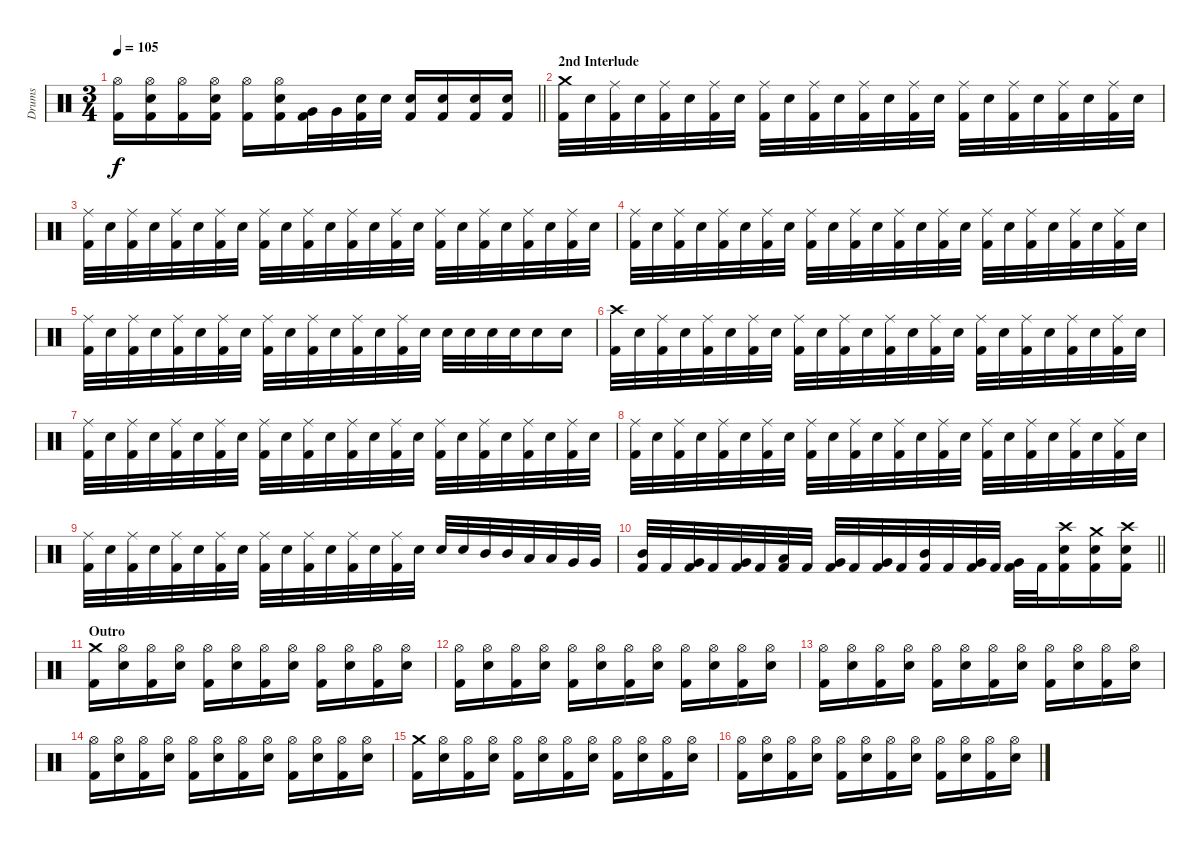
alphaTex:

\track ("Drums" "Drums") {instrument percussion}
\staff {score}
\articulation defaults
\ts (3 4)
\tempo 105
\clef neutral
\barLineRight lightlight
\ks c
("Kick (hit) 2" "Hi-Hat (open)").16{dy f} ("Kick (hit) 2" "Electric Snare (hit)" "Hi-Hat (open)").16 ("Kick (hit) 2" "Hi-Hat (open)").16 ("Kick (hit) 2" "Electric Snare (hit)" "Hi-Hat (open)").16 ("Kick (hit) 2" "Hi-Hat (open)").16 ("Kick (hit) 2" "Electric Snare (hit)" "Hi-Hat (open)").16 ("Kick (hit) 2" "Very Low Tom (hit)").32 "Very Low Tom (hit)".32 ("Kick (hit) 2" "Electric Snare (hit)").32 "Electric Snare (hit)".32 ("Kick (hit) 2" "Electric Snare (hit)").16 ("Kick (hit) 2" "Electric Snare (hit)").16 ("Kick (hit) 2" "Electric Snare (hit)").16 ("Kick (hit) 2" "Electric Snare (hit)").16 |
\section ("" "2nd Interlude")
("Kick (hit) 2" "Crash medium (hit)").32 "Electric Snare (hit)".32 ("Kick (hit) 2" "Ride (middle)").32 "Electric Snare (hit)".32 ("Kick (hit) 2" "Ride (middle)").32 "Electric Snare (hit)".32 ("Kick (hit) 2" "Ride (middle)").32 "Electric Snare (hit)".32 ("Kick (hit) 2" "Ride (middle)").32 "Electric Snare (hit)".32 ("Kick (hit) 2" "Ride (middle)").32 "Electric Snare (hit)".32 ("Kick (hit) 2" "Ride (middle)").32 "Electric Snare (hit)".32 ("Kick (hit) 2" "Ride (middle)").32 "Electric Snare (hit)".32 ("Kick (hit) 2" "Ride (middle)").32 "Electric Snare (hit)".32 ("Kick (hit) 2" "Ride (middle)").32 "Electric Snare (hit)".32 ("Kick (hit) 2" "Ride (middle)").32 "Electric Snare (hit)".32 ("Kick (hit) 2" "Ride (middle)").32 "Electric Snare (hit)".32 |
("Kick (hit) 2" "Ride (middle)").32 "Electric Snare (hit)".32 ("Kick (hit) 2" "Ride (middle)").32 "Electric Snare (hit)".32 ("Kick (hit) 2" "Ride (middle)").32 "Electric Snare (hit)".32 ("Kick (hit) 2" "Ride (middle)").32 "Electric Snare (hit)".32 ("Kick (hit) 2" "Ride (middle)").32 "Electric Snare (hit)".32 ("Kick (hit) 2" "Ride (middle)").32 "Electric Snare (hit)".32 ("Kick (hit) 2" "Ride (middle)").32 "Electric Snare (hit)".32 ("Kick (hit) 2" "Ride (middle)").32 "Electric Snare (hit)".32 ("Kick (hit) 2" "Ride (middle)").32 "Electric Snare (hit)".32 ("Kick (hit) 2" "Ride (middle)").32 "Electric Snare (hit)".32 ("Kick (hit) 2" "Ride (middle)").32 "Electric Snare (hit)".32 ("Kick (hit) 2" "Ride (middle)").32 "Electric Snare (hit)".32 |
("Kick (hit) 2" "Ride (middle)").32 "Electric Snare (hit)".32 ("Kick (hit) 2" "Ride (middle)").32 "Electric Snare (hit)".32 ("Kick (hit) 2" "Ride (middle)").32 "Electric Snare (hit)".32 ("Kick (hit) 2" "Ride (middle)").32 "Electric Snare (hit)".32 ("Kick (hit) 2" "Ride (middle)").32 "Electric Snare (hit)".32 ("Kick (hit) 2" "Ride (middle)").32 "Electric Snare (hit)".32 ("Kick (hit) 2" "Ride (middle)").32 "Electric Snare (hit)".32 ("Kick (hit) 2" "Ride (middle)").32 "Electric Snare (hit)".32 ("Kick (hit) 2" "Ride (middle)").32 "Electric Snare (hit)".32 ("Kick (hit) 2" "Ride (middle)").32 "Electric Snare (hit)".32 ("Kick (hit) 2" "Ride (middle)").32 "Electric Snare (hit)".32 ("Kick (hit) 2" "Ride (middle)").32 "Electric Snare (hit)".32 |
("Kick (hit) 2" "Ride (middle)").32 "Electric Snare (hit)".32 ("Kick (hit) 2" "Ride (middle)").32 "Electric Snare (hit)".32 ("Kick (hit) 2" "Ride (middle)").32 "Electric Snare (hit)".32 ("Kick (hit) 2" "Ride (middle)").32 "Electric Snare (hit)".32 ("Kick (hit) 2" "Ride (middle)").32 "Electric Snare (hit)".32 ("Kick (hit) 2" "Ride (middle)").32 "Electric Snare (hit)".32 ("Kick (hit) 2" "Ride (middle)").32 "Electric Snare (hit)".32 ("Kick (hit) 2" "Ride (middle)").32 "Electric Snare (hit)".32 "Electric Snare (hit)".32 "Electric Snare (hit)".32 "Electric Snare (hit)".32 "Electric Snare (hit)".32 "Electric Snare (hit)".16 "Electric Snare (hit)".16 |
("Kick (hit) 2" "Crash high (hit)").32 "Electric Snare (hit)".32 ("Kick (hit) 2" "Ride (middle)").32 "Electric Snare (hit)".32 ("Kick (hit) 2" "Ride (middle)").32 "Electric Snare (hit)".32 ("Kick (hit) 2" "Ride (middle)").32 "Electric Snare (hit)".32 ("Kick (hit) 2" "Ride (middle)").32 "Electric Snare (hit)".32 ("Kick (hit) 2" "Ride (middle)").32 "Electric Snare (hit)".32 ("Kick (hit) 2" "Ride (middle)").32 "Electric Snare (hit)".32 ("Kick (hit) 2" "Ride (middle)").32 "Electric Snare (hit)".32 ("Kick (hit) 2" "Ride (middle)").32 "Electric Snare (hit)".32 ("Kick (hit) 2" "Ride (middle)").32 "Electric Snare (hit)".32 ("Kick (hit) 2" "Ride (middle)").32 "Electric Snare (hit)".32 ("Kick (hit) 2" "Ride (middle)").32 "Electric Snare (hit)".32 |
("Kick (hit) 2" "Ride (middle)").32 "Electric Snare (hit)".32 ("Kick (hit) 2" "Ride (middle)").32 "Electric Snare (hit)".32 ("Kick (hit) 2" "Ride (middle)").32 "Electric Snare (hit)".32 ("Kick (hit) 2" "Ride (middle)").32 "Electric Snare (hit)".32 ("Kick (hit) 2" "Ride (middle)").32 "Electric Snare (hit)".32 ("Kick (hit) 2" "Ride (middle)").32 "Electric Snare (hit)".32 ("Kick (hit) 2" "Ride (middle)").32 "Electric Snare (hit)".32 ("Kick (hit) 2" "Ride (middle)").32 "Electric Snare (hit)".32 ("Kick (hit) 2" "Ride (middle)").32 "Electric Snare (hit)".32 ("Kick (hit) 2" "Ride (middle)").32 "Electric Snare (hit)".32 ("Kick (hit) 2" "Ride (middle)").32 "Electric Snare (hit)".32 ("Kick (hit) 2" "Ride (middle)").32 "Electric Snare (hit)".32 |
("Kick (hit) 2" "Ride (middle)").32 "Electric Snare (hit)".32 ("Kick (hit) 2" "Ride (middle)").32 "Electric Snare (hit)".32 ("Kick (hit) 2" "Ride (middle)").32 "Electric Snare (hit)".32 ("Kick (hit) 2" "Ride (middle)").32 "Electric Snare (hit)".32 ("Kick (hit) 2" "Ride (middle)").32 "Electric Snare (hit)".32 ("Kick (hit) 2" "Ride (middle)").32 "Electric Snare (hit)".32 ("Kick (hit) 2" "Ride (middle)").32 "Electric Snare (hit)".32 ("Kick (hit) 2" "Ride (middle)").32 "Electric Snare (hit)".32 ("Kick (hit) 2" "Ride (middle)").32 "Electric Snare (hit)".32 ("Kick (hit) 2" "Ride (middle)").32 "Electric Snare (hit)".32 ("Kick (hit) 2" "Ride (middle)").32 "Electric Snare (hit)".32 ("Kick (hit) 2" "Ride (middle)").32 "Electric Snare (hit)".32 |
("Kick (hit) 2" "Ride (middle)").32 "Electric Snare (hit)".32 ("Kick (hit) 2" "Ride (middle)").32 "Electric Snare (hit)".32 ("Kick (hit) 2" "Ride (middle)").32 "Electric Snare (hit)".32 ("Kick (hit) 2" "Ride (middle)").32 "Electric Snare (hit)".32 ("Kick (hit) 2" "Ride (middle)").32 "Electric Snare (hit)".32 ("Kick (hit) 2" "Ride (middle)").32 "Electric Snare (hit)".32 ("Kick (hit) 2" "Ride (middle)").32 "Electric Snare (hit)".32 ("Kick (hit) 2" "Ride (middle)").32 "Electric Snare (hit)".32 "Electric Snare (hit)".32 "Electric Snare (hit)".32 "Mid Tom (hit)".32 "Mid Tom (hit)".32 "Low Tom (hit)".32 "Low Tom (hit)".32 "Very Low Tom (hit)".32 "Very Low Tom (hit)".32 |
\barLineRight lightlight
("Kick (hit) 2" "Mid Tom (hit)").32 "Kick (hit) 2".32 ("Kick (hit) 2" "Very Low Tom (hit)").32 "Kick (hit) 2".32 ("Kick (hit) 2" "Very Low Tom (hit)").32 "Kick (hit) 2".32 ("Kick (hit) 2" "Low Tom (hit)").32 "Kick (hit) 2".32 ("Kick (hit) 2" "Very Low Tom (hit)").32 "Kick (hit) 2".32 ("Kick (hit) 2" "Very Low Tom (hit)").32 "Kick (hit) 2".32 ("Kick (hit) 2" "Mid Tom (hit)").32 "Kick (hit) 2".32 ("Kick (hit) 2" "Very Low Tom (hit)").32 "Kick (hit) 2".32 ("Kick (hit) 2" "Very Low Tom (hit)").32 "Kick (hit) 2".32 ("Kick (hit) 2" "Electric Snare (hit)" "Crash high (hit)").16 ("Kick (hit) 2" "Electric Snare (hit)" "Crash medium (hit)").16 ("Kick (hit) 2" "Electric Snare (hit)" "Crash high (hit)").16 |
\section ("" "Outro")
("Kick (hit) 2" "Crash medium (hit)").16 ("Electric Snare (hit)" "Hi-Hat (open)").16 ("Kick (hit) 2" "Hi-Hat (open)").16 ("Electric Snare (hit)" "Hi-Hat (open)").16 ("Kick (hit) 2" "Hi-Hat (open)").16 ("Electric Snare (hit)" "Hi-Hat (open)").16 ("Kick (hit) 2" "Hi-Hat (open)").16 ("Electric Snare (hit)" "Hi-Hat (open)").16 ("Kick (hit) 2" "Hi-Hat (open)").16 ("Electric Snare (hit)" "Hi-Hat (open)").16 ("Kick (hit) 2" "Hi-Hat (open)").16 ("Electric Snare (hit)" "Hi-Hat (open)").16 |
("Kick (hit) 2" "Hi-Hat (open)").16 ("Electric Snare (hit)" "Hi-Hat (open)").16 ("Kick (hit) 2" "Hi-Hat (open)").16 ("Electric Snare (hit)" "Hi-Hat (open)").16 ("Kick (hit) 2" "Hi-Hat (open)").16 ("Electric Snare (hit)" "Hi-Hat (open)").16 ("Kick (hit) 2" "Hi-Hat (open)").16 ("Electric Snare (hit)" "Hi-Hat (open)").16 ("Kick (hit) 2" "Hi-Hat (open)").16 ("Electric Snare (hit)" "Hi-Hat (open)").16 ("Kick (hit) 2" "Hi-Hat (open)").16 ("Electric Snare (hit)" "Hi-Hat (open)").16 |
("Kick (hit) 2" "Hi-Hat (open)").16 ("Electric Snare (hit)" "Hi-Hat (open)").16 ("Kick (hit) 2" "Hi-Hat (open)").16 ("Electric Snare (hit)" "Hi-Hat (open)").16 ("Kick (hit) 2" "Hi-Hat (open)").16 ("Electric Snare (hit)" "Hi-Hat (open)").16 ("Kick (hit) 2" "Hi-Hat (open)").16 ("Electric Snare (hit)" "Hi-Hat (open)").16 ("Kick (hit) 2" "Hi-Hat (open)").16 ("Electric Snare (hit)" "Hi-Hat (open)").16 ("Kick (hit) 2" "Hi-Hat (open)").16 ("Electric Snare (hit)" "Hi-Hat (open)").16 |
("Kick (hit) 2" "Hi-Hat (open)").16 ("Electric Snare (hit)" "Hi-Hat (open)").16 ("Kick (hit) 2" "Hi-Hat (open)").16 ("Electric Snare (hit)" "Hi-Hat (open)").16 ("Kick (hit) 2" "Hi-Hat (open)").16 ("Electric Snare (hit)" "Hi-Hat (open)").16 ("Kick (hit) 2" "Hi-Hat (open)").16 ("Electric Snare (hit)" "Hi-Hat (open)").16 ("Kick (hit) 2" "Hi-Hat (open)").16 ("Electric Snare (hit)" "Hi-Hat (open)").16 ("Kick (hit) 2" "Hi-Hat (open)").16 ("Electric Snare (hit)" "Hi-Hat (open)").16 |
("Kick (hit) 2" "Crash medium (hit)").16 ("Electric Snare (hit)" "Hi-Hat (open)").16 ("Kick (hit) 2" "Hi-Hat (open)").16 ("Electric Snare (hit)" "Hi-Hat (open)").16 ("Kick (hit) 2" "Hi-Hat (open)").16 ("Electric Snare (hit)" "Hi-Hat (open)").16 ("Kick (hit) 2" "Hi-Hat (open)").16 ("Electric Snare (hit)" "Hi-Hat (open)").16 ("Kick (hit) 2" "Hi-Hat (open)").16 ("Electric Snare (hit)" "Hi-Hat (open)").16 ("Kick (hit) 2" "Hi-Hat (open)").16 ("Electric Snare (hit)" "Hi-Hat (open)").16 |
("Kick (hit) 2" "Hi-Hat (open)").16 ("Electric Snare (hit)" "Hi-Hat (open)").16 ("Kick (hit) 2" "Hi-Hat (open)").16 ("Electric Snare (hit)" "Hi-Hat (open)").16 ("Kick (hit) 2" "Hi-Hat (open)").16 ("Electric Snare (hit)" "Hi-Hat (open)").16 ("Kick (hit) 2" "Hi-Hat (open)").16 ("Electric Snare (hit)" "Hi-Hat (open)").16 ("Kick (hit) 2" "Hi-Hat (open)").16 ("Electric Snare (hit)" "Hi-Hat (open)").16 ("Kick (hit) 2" "Hi-Hat (open)").16 ("Electric Snare (hit)" "Hi-Hat (open)").16
